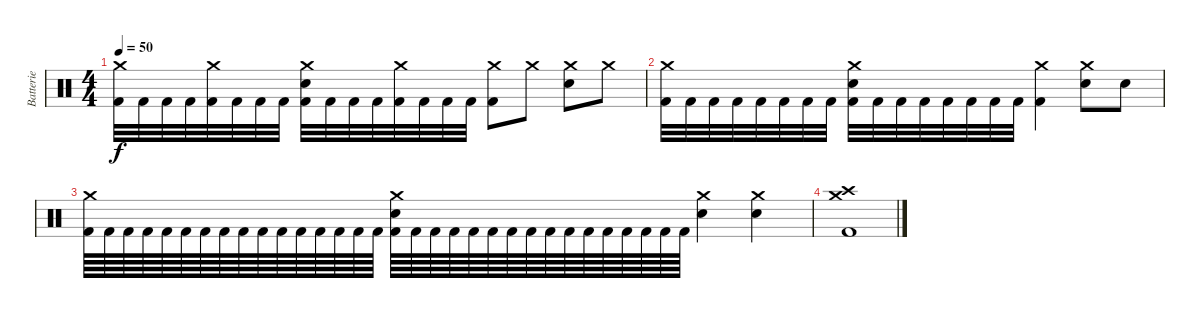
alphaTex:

\track ("Batterie" "Batterie") {instrument percussion}
\staff {score}
\articulation defaults
\ts (4 4)
\tempo 50
\clef neutral
\ks c
("Crash medium (hit)" "Kick (hit) 2").32{dy f} "Kick (hit) 2".32 "Kick (hit) 2".32 "Kick (hit) 2".32 ("Crash medium (hit)" "Kick (hit) 2").32 "Kick (hit) 2".32 "Kick (hit) 2".32 "Kick (hit) 2".32 ("Crash medium (hit)" "Electric Snare (hit)" "Kick (hit) 2").32 "Kick (hit) 2".32 "Kick (hit) 2".32 "Kick (hit) 2".32 ("Crash medium (hit)" "Kick (hit) 2").32 "Kick (hit) 2".32 "Kick (hit) 2".32 "Kick (hit) 2".32 ("Crash medium (hit)" "Kick (hit) 2").8 "Crash medium (hit)".8 ("Crash medium (hit)" "Electric Snare (hit)").8 "Crash medium (hit)".8 |
("Crash medium (hit)" "Kick (hit) 2").32 "Kick (hit) 2".32 "Kick (hit) 2".32 "Kick (hit) 2".32 "Kick (hit) 2".32 "Kick (hit) 2".32 "Kick (hit) 2".32 "Kick (hit) 2".32 ("Crash medium (hit)" "Electric Snare (hit)" "Kick (hit) 2").32 "Kick (hit) 2".32 "Kick (hit) 2".32 "Kick (hit) 2".32 "Kick (hit) 2".32 "Kick (hit) 2".32 "Kick (hit) 2".32 "Kick (hit) 2".32 ("Crash medium (hit)" "Kick (hit) 2").4 ("Crash medium (hit)" "Electric Snare (hit)").8 "Electric Snare (hit)".8 |
("Crash medium (hit)" "Kick (hit) 2").64 "Kick (hit) 2".64 "Kick (hit) 2".64 "Kick (hit) 2".64 "Kick (hit) 2".64 "Kick (hit) 2".64 "Kick (hit) 2".64 "Kick (hit) 2".64 "Kick (hit) 2".64 "Kick (hit) 2".64 "Kick (hit) 2".64 "Kick (hit) 2".64 "Kick (hit) 2".64 "Kick (hit) 2".64 "Kick (hit) 2".64 "Kick (hit) 2".64 ("Crash medium (hit)" "Electric Snare (hit)" "Kick (hit) 2").64 "Kick (hit) 2".64 "Kick (hit) 2".64 "Kick (hit) 2".64 "Kick (hit) 2".64 "Kick (hit) 2".64 "Kick (hit) 2".64 "Kick (hit) 2".64 "Kick (hit) 2".64 "Kick (hit) 2".64 "Kick (hit) 2".64 "Kick (hit) 2".64 "Kick (hit) 2".64 "Kick (hit) 2".64 "Kick (hit) 2".64 "Kick (hit) 2".64 ("Crash medium (hit)" "Electric Snare (hit)").4 ("Crash medium (hit)" "Electric Snare (hit)").4 |
("Crash medium (hit)" "Crash high (hit)" "Kick (hit) 2").1
